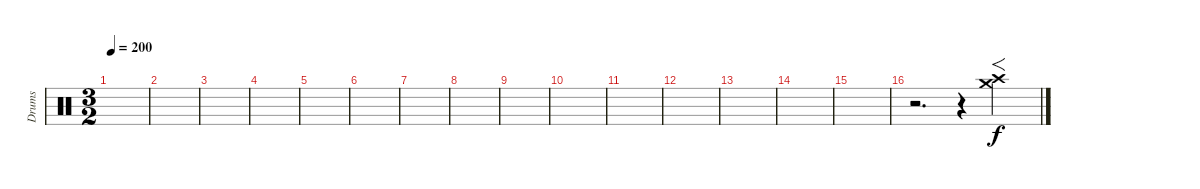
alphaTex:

\track ("Drums" "Drums") {instrument percussion}
\staff {score}
\articulation defaults
\ts (3 2)
\tempo 200
\clef neutral
\ks c
|
|
|
|
|
|
|
|
|
|
|
|
|
|
|
r.2{d} r.4 ("Crash high (hit)" "Crash medium (hit)").2{f volume 16}
